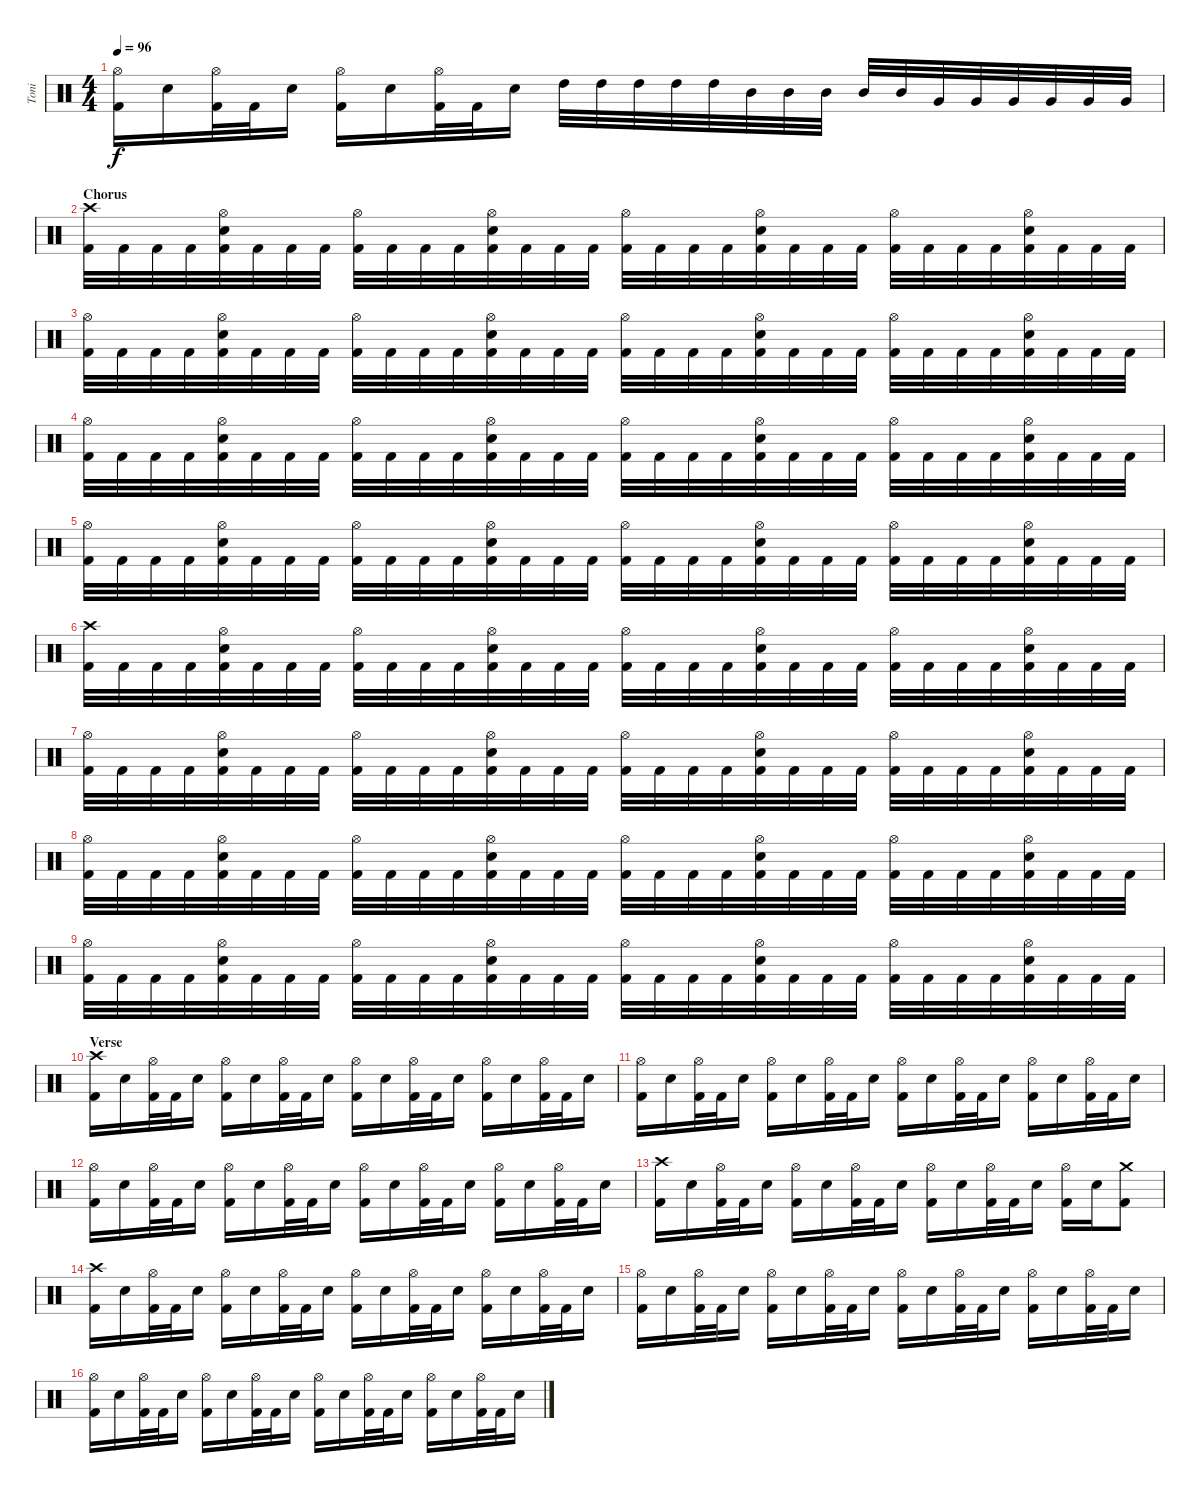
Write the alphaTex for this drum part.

\track ("Toni" "Toni") {instrument percussion}
\staff {score}
\articulation defaults
\ts (4 4)
\tempo 96
\clef neutral
\ks c
("Hi-Hat (open)" "Kick (hit) 2").16{dy f} "Electric Snare (hit)".16 ("Hi-Hat (open)" "Kick (hit) 2").32 "Kick (hit) 2".32 "Electric Snare (hit)".16 ("Hi-Hat (open)" "Kick (hit) 2").16 "Electric Snare (hit)".16 ("Hi-Hat (open)" "Kick (hit) 2").32 "Kick (hit) 2".32 "Electric Snare (hit)".16 "High Tom (hit)".32 "High Tom (hit)".32 "High Tom (hit)".32 "High Tom (hit)".32 "High Tom (hit)".32 "Mid Tom (hit)".32 "Mid Tom (hit)".32 "Mid Tom (hit)".32 "Mid Tom (hit)".32 "Mid Tom (hit)".32 "Very Low Tom (hit)".32 "Very Low Tom (hit)".32 "Very Low Tom (hit)".32 "Very Low Tom (hit)".32 "Very Low Tom (hit)".32 "Very Low Tom (hit)".32 |
\section ("" "Chorus")
("Crash high (hit)" "Kick (hit) 2").32 "Kick (hit) 2".32 "Kick (hit) 2".32 "Kick (hit) 2".32 ("Hi-Hat (open)" "Electric Snare (hit)" "Kick (hit) 2").32 "Kick (hit) 2".32 "Kick (hit) 2".32 "Kick (hit) 2".32 ("Hi-Hat (open)" "Kick (hit) 2").32 "Kick (hit) 2".32 "Kick (hit) 2".32 "Kick (hit) 2".32 ("Hi-Hat (open)" "Electric Snare (hit)" "Kick (hit) 2").32 "Kick (hit) 2".32 "Kick (hit) 2".32 "Kick (hit) 2".32 ("Hi-Hat (open)" "Kick (hit) 2").32 "Kick (hit) 2".32 "Kick (hit) 2".32 "Kick (hit) 2".32 ("Hi-Hat (open)" "Electric Snare (hit)" "Kick (hit) 2").32 "Kick (hit) 2".32 "Kick (hit) 2".32 "Kick (hit) 2".32 ("Hi-Hat (open)" "Kick (hit) 2").32 "Kick (hit) 2".32 "Kick (hit) 2".32 "Kick (hit) 2".32 ("Hi-Hat (open)" "Electric Snare (hit)" "Kick (hit) 2").32 "Kick (hit) 2".32 "Kick (hit) 2".32 "Kick (hit) 2".32 |
("Hi-Hat (open)" "Kick (hit) 2").32 "Kick (hit) 2".32 "Kick (hit) 2".32 "Kick (hit) 2".32 ("Hi-Hat (open)" "Electric Snare (hit)" "Kick (hit) 2").32 "Kick (hit) 2".32 "Kick (hit) 2".32 "Kick (hit) 2".32 ("Hi-Hat (open)" "Kick (hit) 2").32 "Kick (hit) 2".32 "Kick (hit) 2".32 "Kick (hit) 2".32 ("Hi-Hat (open)" "Electric Snare (hit)" "Kick (hit) 2").32 "Kick (hit) 2".32 "Kick (hit) 2".32 "Kick (hit) 2".32 ("Hi-Hat (open)" "Kick (hit) 2").32 "Kick (hit) 2".32 "Kick (hit) 2".32 "Kick (hit) 2".32 ("Hi-Hat (open)" "Electric Snare (hit)" "Kick (hit) 2").32 "Kick (hit) 2".32 "Kick (hit) 2".32 "Kick (hit) 2".32 ("Hi-Hat (open)" "Kick (hit) 2").32 "Kick (hit) 2".32 "Kick (hit) 2".32 "Kick (hit) 2".32 ("Hi-Hat (open)" "Electric Snare (hit)" "Kick (hit) 2").32 "Kick (hit) 2".32 "Kick (hit) 2".32 "Kick (hit) 2".32 |
("Hi-Hat (open)" "Kick (hit) 2").32 "Kick (hit) 2".32 "Kick (hit) 2".32 "Kick (hit) 2".32 ("Hi-Hat (open)" "Electric Snare (hit)" "Kick (hit) 2").32 "Kick (hit) 2".32 "Kick (hit) 2".32 "Kick (hit) 2".32 ("Hi-Hat (open)" "Kick (hit) 2").32 "Kick (hit) 2".32 "Kick (hit) 2".32 "Kick (hit) 2".32 ("Hi-Hat (open)" "Electric Snare (hit)" "Kick (hit) 2").32 "Kick (hit) 2".32 "Kick (hit) 2".32 "Kick (hit) 2".32 ("Hi-Hat (open)" "Kick (hit) 2").32 "Kick (hit) 2".32 "Kick (hit) 2".32 "Kick (hit) 2".32 ("Hi-Hat (open)" "Electric Snare (hit)" "Kick (hit) 2").32 "Kick (hit) 2".32 "Kick (hit) 2".32 "Kick (hit) 2".32 ("Hi-Hat (open)" "Kick (hit) 2").32 "Kick (hit) 2".32 "Kick (hit) 2".32 "Kick (hit) 2".32 ("Hi-Hat (open)" "Electric Snare (hit)" "Kick (hit) 2").32 "Kick (hit) 2".32 "Kick (hit) 2".32 "Kick (hit) 2".32 |
("Hi-Hat (open)" "Kick (hit) 2").32 "Kick (hit) 2".32 "Kick (hit) 2".32 "Kick (hit) 2".32 ("Hi-Hat (open)" "Electric Snare (hit)" "Kick (hit) 2").32 "Kick (hit) 2".32 "Kick (hit) 2".32 "Kick (hit) 2".32 ("Hi-Hat (open)" "Kick (hit) 2").32 "Kick (hit) 2".32 "Kick (hit) 2".32 "Kick (hit) 2".32 ("Hi-Hat (open)" "Electric Snare (hit)" "Kick (hit) 2").32 "Kick (hit) 2".32 "Kick (hit) 2".32 "Kick (hit) 2".32 ("Hi-Hat (open)" "Kick (hit) 2").32 "Kick (hit) 2".32 "Kick (hit) 2".32 "Kick (hit) 2".32 ("Hi-Hat (open)" "Electric Snare (hit)" "Kick (hit) 2").32 "Kick (hit) 2".32 "Kick (hit) 2".32 "Kick (hit) 2".32 ("Hi-Hat (open)" "Kick (hit) 2").32 "Kick (hit) 2".32 "Kick (hit) 2".32 "Kick (hit) 2".32 ("Hi-Hat (open)" "Electric Snare (hit)" "Kick (hit) 2").32 "Kick (hit) 2".32 "Kick (hit) 2".32 "Kick (hit) 2".32 |
("Crash high (hit)" "Kick (hit) 2").32 "Kick (hit) 2".32 "Kick (hit) 2".32 "Kick (hit) 2".32 ("Hi-Hat (open)" "Electric Snare (hit)" "Kick (hit) 2").32 "Kick (hit) 2".32 "Kick (hit) 2".32 "Kick (hit) 2".32 ("Hi-Hat (open)" "Kick (hit) 2").32 "Kick (hit) 2".32 "Kick (hit) 2".32 "Kick (hit) 2".32 ("Hi-Hat (open)" "Electric Snare (hit)" "Kick (hit) 2").32 "Kick (hit) 2".32 "Kick (hit) 2".32 "Kick (hit) 2".32 ("Hi-Hat (open)" "Kick (hit) 2").32 "Kick (hit) 2".32 "Kick (hit) 2".32 "Kick (hit) 2".32 ("Hi-Hat (open)" "Electric Snare (hit)" "Kick (hit) 2").32 "Kick (hit) 2".32 "Kick (hit) 2".32 "Kick (hit) 2".32 ("Hi-Hat (open)" "Kick (hit) 2").32 "Kick (hit) 2".32 "Kick (hit) 2".32 "Kick (hit) 2".32 ("Hi-Hat (open)" "Electric Snare (hit)" "Kick (hit) 2").32 "Kick (hit) 2".32 "Kick (hit) 2".32 "Kick (hit) 2".32 |
("Hi-Hat (open)" "Kick (hit) 2").32 "Kick (hit) 2".32 "Kick (hit) 2".32 "Kick (hit) 2".32 ("Hi-Hat (open)" "Electric Snare (hit)" "Kick (hit) 2").32 "Kick (hit) 2".32 "Kick (hit) 2".32 "Kick (hit) 2".32 ("Hi-Hat (open)" "Kick (hit) 2").32 "Kick (hit) 2".32 "Kick (hit) 2".32 "Kick (hit) 2".32 ("Hi-Hat (open)" "Electric Snare (hit)" "Kick (hit) 2").32 "Kick (hit) 2".32 "Kick (hit) 2".32 "Kick (hit) 2".32 ("Hi-Hat (open)" "Kick (hit) 2").32 "Kick (hit) 2".32 "Kick (hit) 2".32 "Kick (hit) 2".32 ("Hi-Hat (open)" "Electric Snare (hit)" "Kick (hit) 2").32 "Kick (hit) 2".32 "Kick (hit) 2".32 "Kick (hit) 2".32 ("Hi-Hat (open)" "Kick (hit) 2").32 "Kick (hit) 2".32 "Kick (hit) 2".32 "Kick (hit) 2".32 ("Hi-Hat (open)" "Electric Snare (hit)" "Kick (hit) 2").32 "Kick (hit) 2".32 "Kick (hit) 2".32 "Kick (hit) 2".32 |
("Hi-Hat (open)" "Kick (hit) 2").32 "Kick (hit) 2".32 "Kick (hit) 2".32 "Kick (hit) 2".32 ("Hi-Hat (open)" "Electric Snare (hit)" "Kick (hit) 2").32 "Kick (hit) 2".32 "Kick (hit) 2".32 "Kick (hit) 2".32 ("Hi-Hat (open)" "Kick (hit) 2").32 "Kick (hit) 2".32 "Kick (hit) 2".32 "Kick (hit) 2".32 ("Hi-Hat (open)" "Electric Snare (hit)" "Kick (hit) 2").32 "Kick (hit) 2".32 "Kick (hit) 2".32 "Kick (hit) 2".32 ("Hi-Hat (open)" "Kick (hit) 2").32 "Kick (hit) 2".32 "Kick (hit) 2".32 "Kick (hit) 2".32 ("Hi-Hat (open)" "Electric Snare (hit)" "Kick (hit) 2").32 "Kick (hit) 2".32 "Kick (hit) 2".32 "Kick (hit) 2".32 ("Hi-Hat (open)" "Kick (hit) 2").32 "Kick (hit) 2".32 "Kick (hit) 2".32 "Kick (hit) 2".32 ("Hi-Hat (open)" "Electric Snare (hit)" "Kick (hit) 2").32 "Kick (hit) 2".32 "Kick (hit) 2".32 "Kick (hit) 2".32 |
("Hi-Hat (open)" "Kick (hit) 2").32 "Kick (hit) 2".32 "Kick (hit) 2".32 "Kick (hit) 2".32 ("Hi-Hat (open)" "Electric Snare (hit)" "Kick (hit) 2").32 "Kick (hit) 2".32 "Kick (hit) 2".32 "Kick (hit) 2".32 ("Hi-Hat (open)" "Kick (hit) 2").32 "Kick (hit) 2".32 "Kick (hit) 2".32 "Kick (hit) 2".32 ("Hi-Hat (open)" "Electric Snare (hit)" "Kick (hit) 2").32 "Kick (hit) 2".32 "Kick (hit) 2".32 "Kick (hit) 2".32 ("Hi-Hat (open)" "Kick (hit) 2").32 "Kick (hit) 2".32 "Kick (hit) 2".32 "Kick (hit) 2".32 ("Hi-Hat (open)" "Electric Snare (hit)" "Kick (hit) 2").32 "Kick (hit) 2".32 "Kick (hit) 2".32 "Kick (hit) 2".32 ("Hi-Hat (open)" "Kick (hit) 2").32 "Kick (hit) 2".32 "Kick (hit) 2".32 "Kick (hit) 2".32 ("Hi-Hat (open)" "Electric Snare (hit)" "Kick (hit) 2").32 "Kick (hit) 2".32 "Kick (hit) 2".32 "Kick (hit) 2".32 |
\section ("" "Verse")
("Crash high (hit)" "Kick (hit) 2").16 "Electric Snare (hit)".16 ("Hi-Hat (open)" "Kick (hit) 2").32 "Kick (hit) 2".32 "Electric Snare (hit)".16 ("Hi-Hat (open)" "Kick (hit) 2").16 "Electric Snare (hit)".16 ("Hi-Hat (open)" "Kick (hit) 2").32 "Kick (hit) 2".32 "Electric Snare (hit)".16 ("Hi-Hat (open)" "Kick (hit) 2").16 "Electric Snare (hit)".16 ("Hi-Hat (open)" "Kick (hit) 2").32 "Kick (hit) 2".32 "Electric Snare (hit)".16 ("Hi-Hat (open)" "Kick (hit) 2").16 "Electric Snare (hit)".16 ("Hi-Hat (open)" "Kick (hit) 2").32 "Kick (hit) 2".32 "Electric Snare (hit)".16 |
("Hi-Hat (open)" "Kick (hit) 2").16 "Electric Snare (hit)".16 ("Hi-Hat (open)" "Kick (hit) 2").32 "Kick (hit) 2".32 "Electric Snare (hit)".16 ("Hi-Hat (open)" "Kick (hit) 2").16 "Electric Snare (hit)".16 ("Hi-Hat (open)" "Kick (hit) 2").32 "Kick (hit) 2".32 "Electric Snare (hit)".16 ("Hi-Hat (open)" "Kick (hit) 2").16 "Electric Snare (hit)".16 ("Hi-Hat (open)" "Kick (hit) 2").32 "Kick (hit) 2".32 "Electric Snare (hit)".16 ("Hi-Hat (open)" "Kick (hit) 2").16 "Electric Snare (hit)".16 ("Hi-Hat (open)" "Kick (hit) 2").32 "Kick (hit) 2".32 "Electric Snare (hit)".16 |
("Hi-Hat (open)" "Kick (hit) 2").16 "Electric Snare (hit)".16 ("Hi-Hat (open)" "Kick (hit) 2").32 "Kick (hit) 2".32 "Electric Snare (hit)".16 ("Hi-Hat (open)" "Kick (hit) 2").16 "Electric Snare (hit)".16 ("Hi-Hat (open)" "Kick (hit) 2").32 "Kick (hit) 2".32 "Electric Snare (hit)".16 ("Hi-Hat (open)" "Kick (hit) 2").16 "Electric Snare (hit)".16 ("Hi-Hat (open)" "Kick (hit) 2").32 "Kick (hit) 2".32 "Electric Snare (hit)".16 ("Hi-Hat (open)" "Kick (hit) 2").16 "Electric Snare (hit)".16 ("Hi-Hat (open)" "Kick (hit) 2").32 "Kick (hit) 2".32 "Electric Snare (hit)".16 |
("Crash high (hit)" "Kick (hit) 2").16 "Electric Snare (hit)".16 ("Hi-Hat (open)" "Kick (hit) 2").32 "Kick (hit) 2".32 "Electric Snare (hit)".16 ("Hi-Hat (open)" "Kick (hit) 2").16 "Electric Snare (hit)".16 ("Hi-Hat (open)" "Kick (hit) 2").32 "Kick (hit) 2".32 "Electric Snare (hit)".16 ("Hi-Hat (open)" "Kick (hit) 2").16 "Electric Snare (hit)".16 ("Hi-Hat (open)" "Kick (hit) 2").32 "Kick (hit) 2".32 "Electric Snare (hit)".16 ("Hi-Hat (open)" "Kick (hit) 2").16 "Electric Snare (hit)".16 ("Crash medium (hit)" "Kick (hit) 2").8 |
("Crash high (hit)" "Kick (hit) 2").16 "Electric Snare (hit)".16 ("Hi-Hat (open)" "Kick (hit) 2").32 "Kick (hit) 2".32 "Electric Snare (hit)".16 ("Hi-Hat (open)" "Kick (hit) 2").16 "Electric Snare (hit)".16 ("Hi-Hat (open)" "Kick (hit) 2").32 "Kick (hit) 2".32 "Electric Snare (hit)".16 ("Hi-Hat (open)" "Kick (hit) 2").16 "Electric Snare (hit)".16 ("Hi-Hat (open)" "Kick (hit) 2").32 "Kick (hit) 2".32 "Electric Snare (hit)".16 ("Hi-Hat (open)" "Kick (hit) 2").16 "Electric Snare (hit)".16 ("Hi-Hat (open)" "Kick (hit) 2").32 "Kick (hit) 2".32 "Electric Snare (hit)".16 |
("Hi-Hat (open)" "Kick (hit) 2").16 "Electric Snare (hit)".16 ("Hi-Hat (open)" "Kick (hit) 2").32 "Kick (hit) 2".32 "Electric Snare (hit)".16 ("Hi-Hat (open)" "Kick (hit) 2").16 "Electric Snare (hit)".16 ("Hi-Hat (open)" "Kick (hit) 2").32 "Kick (hit) 2".32 "Electric Snare (hit)".16 ("Hi-Hat (open)" "Kick (hit) 2").16 "Electric Snare (hit)".16 ("Hi-Hat (open)" "Kick (hit) 2").32 "Kick (hit) 2".32 "Electric Snare (hit)".16 ("Hi-Hat (open)" "Kick (hit) 2").16 "Electric Snare (hit)".16 ("Hi-Hat (open)" "Kick (hit) 2").32 "Kick (hit) 2".32 "Electric Snare (hit)".16 |
("Hi-Hat (open)" "Kick (hit) 2").16 "Electric Snare (hit)".16 ("Hi-Hat (open)" "Kick (hit) 2").32 "Kick (hit) 2".32 "Electric Snare (hit)".16 ("Hi-Hat (open)" "Kick (hit) 2").16 "Electric Snare (hit)".16 ("Hi-Hat (open)" "Kick (hit) 2").32 "Kick (hit) 2".32 "Electric Snare (hit)".16 ("Hi-Hat (open)" "Kick (hit) 2").16 "Electric Snare (hit)".16 ("Hi-Hat (open)" "Kick (hit) 2").32 "Kick (hit) 2".32 "Electric Snare (hit)".16 ("Hi-Hat (open)" "Kick (hit) 2").16 "Electric Snare (hit)".16 ("Hi-Hat (open)" "Kick (hit) 2").32 "Kick (hit) 2".32 "Electric Snare (hit)".16
